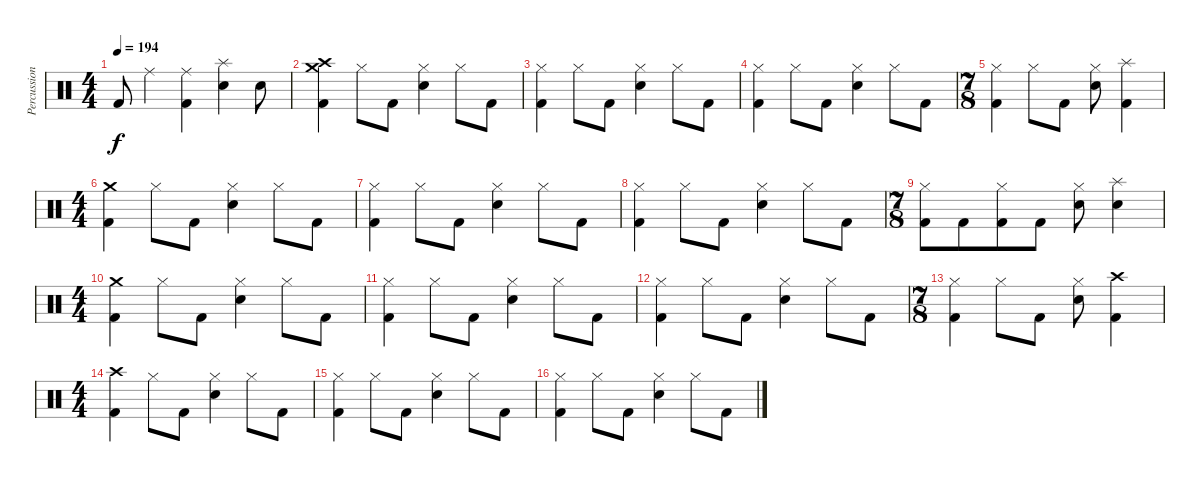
\track ("Percussions" "Percussion") {instrument percussion}
\staff {score}
\articulation defaults
\ts (4 4)
\tempo 194
\clef neutral
\ks c "Kick (hit) 2".8{dy f} "Ride (middle)".4
("Ride (middle)" "Kick (hit) 2").4 ("Splash (hit)" "Electric Snare (hit)").4 "Electric Snare (hit)".8 |
("Crash high (hit)" "Crash medium (hit)" "Kick (hit) 2").4 "Hi-Hat (closed)".8 "Kick (hit) 2".8 ("Hi-Hat (closed)" "Electric Snare (hit)").4 "Hi-Hat (closed)".8 "Kick (hit) 2".8 |
("Hi-Hat (closed)" "Kick (hit) 2").4 "Hi-Hat (closed)".8 "Kick (hit) 2".8 ("Hi-Hat (closed)" "Electric Snare (hit)").4 "Hi-Hat (closed)".8 "Kick (hit) 2".8 |
("Hi-Hat (closed)" "Kick (hit) 2").4 "Hi-Hat (closed)".8 "Kick (hit) 2".8 ("Hi-Hat (closed)" "Electric Snare (hit)").4 "Hi-Hat (closed)".8 "Kick (hit) 2".8 |
\ts (7 8)
("Hi-Hat (closed)" "Kick (hit) 2").4 "Hi-Hat (closed)".8 "Kick (hit) 2".8 ("Hi-Hat (closed)" "Electric Snare (hit)").8 ("Splash (hit)" "Kick (hit) 2").4 |
\ts (4 4)
("Crash medium (hit)" "Kick (hit) 2").4 "Hi-Hat (closed)".8 "Kick (hit) 2".8 ("Hi-Hat (closed)" "Electric Snare (hit)").4 "Hi-Hat (closed)".8 "Kick (hit) 2".8 |
("Hi-Hat (closed)" "Kick (hit) 2").4 "Hi-Hat (closed)".8 "Kick (hit) 2".8 ("Hi-Hat (closed)" "Electric Snare (hit)").4 "Hi-Hat (closed)".8 "Kick (hit) 2".8 |
("Hi-Hat (closed)" "Kick (hit) 2").4 "Hi-Hat (closed)".8 "Kick (hit) 2".8 ("Hi-Hat (closed)" "Electric Snare (hit)").4 "Hi-Hat (closed)".8 "Kick (hit) 2".8 |
\ts (7 8)
("Hi-Hat (closed)" "Kick (hit) 2").8 "Kick (hit) 2".8 ("Hi-Hat (closed)" "Kick (hit) 2").8 "Kick (hit) 2".8 ("Hi-Hat (closed)" "Electric Snare (hit)").8 ("Splash (hit)" "Electric Snare (hit)").4 |
\ts (4 4)
("Crash medium (hit)" "Kick (hit) 2").4 "Hi-Hat (closed)".8 "Kick (hit) 2".8 ("Hi-Hat (closed)" "Electric Snare (hit)").4 "Hi-Hat (closed)".8 "Kick (hit) 2".8 |
("Hi-Hat (closed)" "Kick (hit) 2").4 "Hi-Hat (closed)".8 "Kick (hit) 2".8 ("Hi-Hat (closed)" "Electric Snare (hit)").4 "Hi-Hat (closed)".8 "Kick (hit) 2".8 |
("Hi-Hat (closed)" "Kick (hit) 2").4 "Hi-Hat (closed)".8 "Kick (hit) 2".8 ("Hi-Hat (closed)" "Electric Snare (hit)").4 "Hi-Hat (closed)".8 "Kick (hit) 2".8 |
\ts (7 8)
("Hi-Hat (closed)" "Kick (hit) 2").4 "Hi-Hat (closed)".8 "Kick (hit) 2".8 ("Hi-Hat (closed)" "Electric Snare (hit)").8 ("Crash high (hit)" "Kick (hit) 2").4 |
\ts (4 4)
("Crash high (hit)" "Kick (hit) 2").4 "Hi-Hat (closed)".8 "Kick (hit) 2".8 ("Hi-Hat (closed)" "Electric Snare (hit)").4 "Hi-Hat (closed)".8 "Kick (hit) 2".8 |
("Hi-Hat (closed)" "Kick (hit) 2").4 "Hi-Hat (closed)".8 "Kick (hit) 2".8 ("Hi-Hat (closed)" "Electric Snare (hit)").4 "Hi-Hat (closed)".8 "Kick (hit) 2".8 |
("Hi-Hat (closed)" "Kick (hit) 2").4 "Hi-Hat (closed)".8 "Kick (hit) 2".8 ("Hi-Hat (closed)" "Electric Snare (hit)").4 "Hi-Hat (closed)".8 "Kick (hit) 2".8
